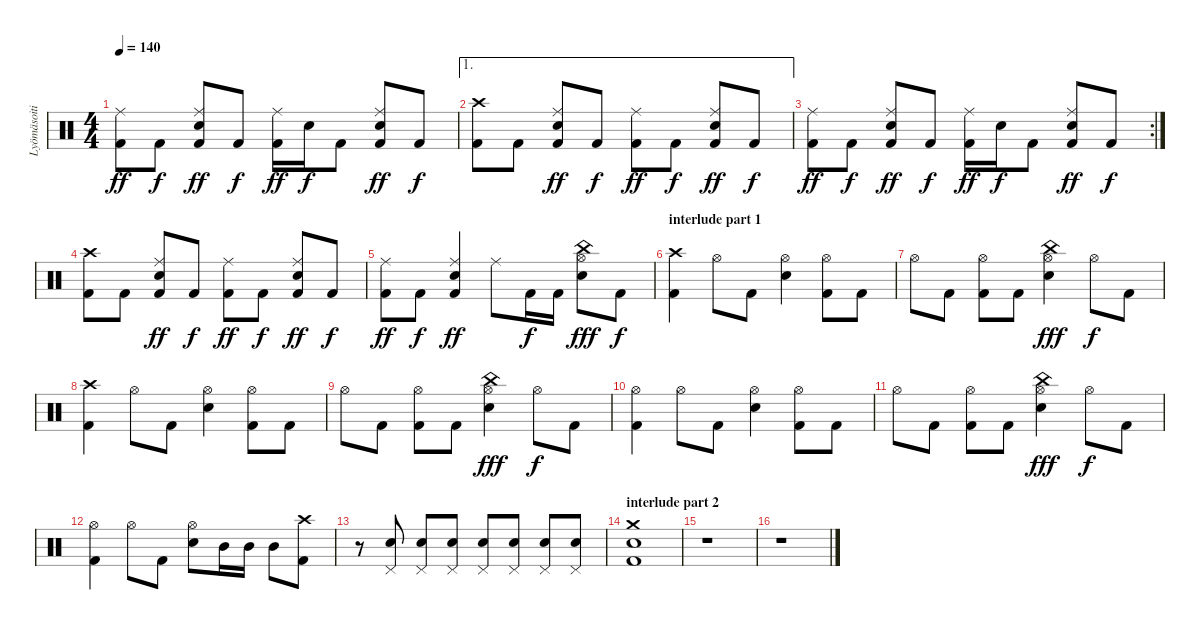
\track ("Lyömäsoitin" "Lyömäsoiti") {instrument percussion}
\staff {score}
\articulation defaults
\ts (4 4)
\tempo 140
\clef neutral
\ks c
("Kick (hit) 2" "Ride (middle)").8{dy ff} "Kick (hit) 2".8{dy f} ("Kick (hit) 2" "Ride (middle)" "Snare (hit) 2").8{dy ff} "Kick (hit) 2".8{dy f} ("Kick (hit) 2" "Ride (middle)").16{dy ff} "Snare (hit) 2".16{dy f} "Kick (hit) 2".8 ("Kick (hit) 2" "Ride (middle)" "Snare (hit) 2").8{dy ff} "Kick (hit) 2".8{dy f} |
\ae 1
("Kick (hit) 2" "Crash high (hit)").8 "Kick (hit) 2".8 ("Kick (hit) 2" "Ride (middle)" "Snare (hit) 2").8{dy ff} "Kick (hit) 2".8{dy f} ("Kick (hit) 2" "Ride (middle)").8{dy ff} "Kick (hit) 2".8{dy f} ("Kick (hit) 2" "Ride (middle)" "Snare (hit) 2").8{dy ff} "Kick (hit) 2".8{dy f} |
\rc 2
("Kick (hit) 2" "Ride (middle)").8{dy ff} "Kick (hit) 2".8{dy f} ("Kick (hit) 2" "Ride (middle)" "Snare (hit) 2").8{dy ff} "Kick (hit) 2".8{dy f} ("Kick (hit) 2" "Ride (middle)").16{dy ff} "Snare (hit) 2".16{dy f} "Kick (hit) 2".8 ("Kick (hit) 2" "Ride (middle)" "Snare (hit) 2").8{dy ff} "Kick (hit) 2".8{dy f} |
("Kick (hit) 2" "Crash high (hit)").8 "Kick (hit) 2".8 ("Kick (hit) 2" "Ride (middle)" "Snare (hit) 2").8{dy ff} "Kick (hit) 2".8{dy f} ("Kick (hit) 2" "Ride (middle)").8{dy ff} "Kick (hit) 2".8{dy f} ("Kick (hit) 2" "Ride (middle)" "Snare (hit) 2").8{dy ff} "Kick (hit) 2".8{dy f} |
("Kick (hit) 2" "Ride (middle)").8{dy ff} "Kick (hit) 2".8{dy f} ("Kick (hit) 2" "Ride (middle)" "Snare (hit) 2").4{dy ff} "Ride (middle)".8 "Kick (hit) 2".16{dy f} "Kick (hit) 2".16 ("China (hit)" "Hi-Hat (open)" "Snare (hit) 2").8{dy fff} "Kick (hit) 2".8{dy f} |
\section ("" "interlude part 1")
("Kick (hit) 2" "Crash high (hit)").4 "Hi-Hat (open)".8 "Kick (hit) 2".8 ("Hi-Hat (open)" "Snare (hit) 2").4 ("Kick (hit) 2" "Hi-Hat (open)").8 "Kick (hit) 2".8 |
"Hi-Hat (open)".8 "Kick (hit) 2".8 ("Kick (hit) 2" "Hi-Hat (open)").8 "Kick (hit) 2".8 ("China (hit)" "Hi-Hat (open)" "Snare (hit) 2").4{dy fff} "Hi-Hat (open)".8{dy f} "Kick (hit) 2".8 |
("Kick (hit) 2" "Crash high (hit)").4 "Hi-Hat (open)".8 "Kick (hit) 2".8 ("Hi-Hat (open)" "Snare (hit) 2").4 ("Kick (hit) 2" "Hi-Hat (open)").8 "Kick (hit) 2".8 |
"Hi-Hat (open)".8 "Kick (hit) 2".8 ("Kick (hit) 2" "Hi-Hat (open)").8 "Kick (hit) 2".8 ("China (hit)" "Hi-Hat (open)" "Snare (hit) 2").4{dy fff} "Hi-Hat (open)".8{dy f} "Kick (hit) 2".8 |
("Kick (hit) 2" "Hi-Hat (open)").4 "Hi-Hat (open)".8 "Kick (hit) 2".8 ("Hi-Hat (open)" "Snare (hit) 2").4 ("Kick (hit) 2" "Hi-Hat (open)").8 "Kick (hit) 2".8 |
"Hi-Hat (open)".8 "Kick (hit) 2".8 ("Kick (hit) 2" "Hi-Hat (open)").8 "Kick (hit) 2".8 ("China (hit)" "Hi-Hat (open)" "Snare (hit) 2").4{dy fff} "Hi-Hat (open)".8{dy f} "Kick (hit) 2".8 |
("Kick (hit) 2" "Hi-Hat (open)").4 "Hi-Hat (open)".8 "Kick (hit) 2".8 ("Hi-Hat (open)" "Snare (hit) 2").8 "Mid Tom (hit)".16 "Mid Tom (hit)".16 "Mid Tom (hit)".8 ("Kick (hit) 2" "Crash high (hit)").8 |
r.8 ("Pedal Hi-Hat (hit)" "Snare (hit) 2").8 ("Pedal Hi-Hat (hit)" "Snare (hit) 2").8 ("Pedal Hi-Hat (hit)" "Snare (hit) 2").8 ("Pedal Hi-Hat (hit)" "Snare (hit) 2").8 ("Pedal Hi-Hat (hit)" "Snare (hit) 2").8 ("Pedal Hi-Hat (hit)" "Snare (hit) 2").8 ("Pedal Hi-Hat (hit)" "Snare (hit) 2").8 |
\section ("" "interlude part 2")
("Kick (hit) 2" "Crash medium (hit)" "Snare (hit) 2").1 |
r.1 |
r.1
